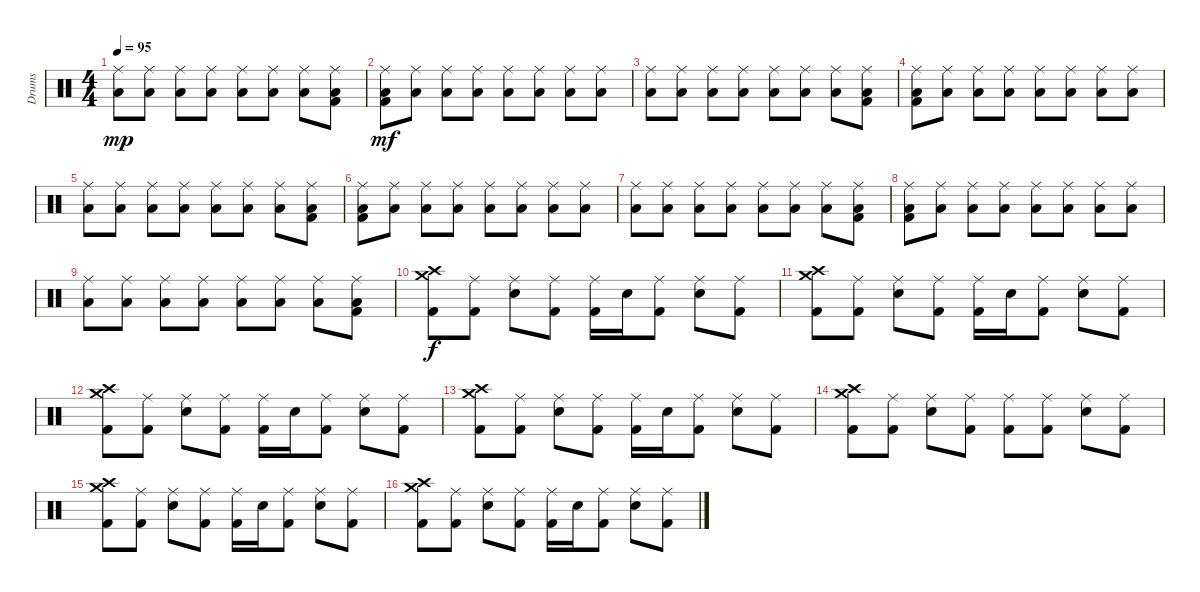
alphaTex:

\track ("Drums" "Drums") {instrument percussion}
\staff {score}
\articulation defaults
\ts (4 4)
\tempo 95
\clef neutral
\ks c
("Ride (middle)" "Low Tom (hit)").8{dy mp} ("Ride (middle)" "Low Tom (hit)").8 ("Ride (middle)" "Low Tom (hit)").8 ("Ride (middle)" "Low Tom (hit)").8 ("Ride (middle)" "Low Tom (hit)").8 ("Ride (middle)" "Low Tom (hit)").8 ("Ride (middle)" "Low Tom (hit)").8 ("Ride (middle)" "Low Tom (hit)" "Kick (hit) 2").8 |
("Ride (middle)" "Low Tom (hit)" "Kick (hit) 2").8{dy mf} ("Ride (middle)" "Low Tom (hit)").8 ("Ride (middle)" "Low Tom (hit)").8 ("Ride (middle)" "Low Tom (hit)").8 ("Ride (middle)" "Low Tom (hit)").8 ("Ride (middle)" "Low Tom (hit)").8 ("Ride (middle)" "Low Tom (hit)").8 ("Ride (middle)" "Low Tom (hit)").8 |
("Ride (middle)" "Low Tom (hit)").8 ("Ride (middle)" "Low Tom (hit)").8 ("Ride (middle)" "Low Tom (hit)").8 ("Ride (middle)" "Low Tom (hit)").8 ("Ride (middle)" "Low Tom (hit)").8 ("Ride (middle)" "Low Tom (hit)").8 ("Ride (middle)" "Low Tom (hit)").8 ("Ride (middle)" "Low Tom (hit)" "Kick (hit) 2").8 |
("Ride (middle)" "Low Tom (hit)" "Kick (hit) 2").8 ("Ride (middle)" "Low Tom (hit)").8 ("Ride (middle)" "Low Tom (hit)").8 ("Ride (middle)" "Low Tom (hit)").8 ("Ride (middle)" "Low Tom (hit)").8 ("Ride (middle)" "Low Tom (hit)").8 ("Ride (middle)" "Low Tom (hit)").8 ("Ride (middle)" "Low Tom (hit)").8 |
("Ride (middle)" "Low Tom (hit)").8 ("Ride (middle)" "Low Tom (hit)").8 ("Ride (middle)" "Low Tom (hit)").8 ("Ride (middle)" "Low Tom (hit)").8 ("Ride (middle)" "Low Tom (hit)").8 ("Ride (middle)" "Low Tom (hit)").8 ("Ride (middle)" "Low Tom (hit)").8 ("Ride (middle)" "Low Tom (hit)" "Kick (hit) 2").8 |
("Ride (middle)" "Low Tom (hit)" "Kick (hit) 2").8 ("Ride (middle)" "Low Tom (hit)").8 ("Ride (middle)" "Low Tom (hit)").8 ("Ride (middle)" "Low Tom (hit)").8 ("Ride (middle)" "Low Tom (hit)").8 ("Ride (middle)" "Low Tom (hit)").8 ("Ride (middle)" "Low Tom (hit)").8 ("Ride (middle)" "Low Tom (hit)").8 |
("Ride (middle)" "Low Tom (hit)").8 ("Ride (middle)" "Low Tom (hit)").8 ("Ride (middle)" "Low Tom (hit)").8 ("Ride (middle)" "Low Tom (hit)").8 ("Ride (middle)" "Low Tom (hit)").8 ("Ride (middle)" "Low Tom (hit)").8 ("Ride (middle)" "Low Tom (hit)").8 ("Ride (middle)" "Low Tom (hit)" "Kick (hit) 2").8 |
("Ride (middle)" "Low Tom (hit)" "Kick (hit) 2").8 ("Ride (middle)" "Low Tom (hit)").8 ("Ride (middle)" "Low Tom (hit)").8 ("Ride (middle)" "Low Tom (hit)").8 ("Ride (middle)" "Low Tom (hit)").8 ("Ride (middle)" "Low Tom (hit)").8 ("Ride (middle)" "Low Tom (hit)").8 ("Ride (middle)" "Low Tom (hit)").8 |
("Ride (middle)" "Low Tom (hit)").8 ("Ride (middle)" "Low Tom (hit)").8 ("Ride (middle)" "Low Tom (hit)").8 ("Ride (middle)" "Low Tom (hit)").8 ("Ride (middle)" "Low Tom (hit)").8 ("Ride (middle)" "Low Tom (hit)").8 ("Ride (middle)" "Low Tom (hit)").8 ("Ride (middle)" "Low Tom (hit)" "Kick (hit) 2").8 |
("Crash high (hit)" "Crash medium (hit)" "Kick (hit) 2").8{dy f volume 16} ("Ride (middle)" "Kick (hit) 2").8 ("Ride (middle)" "Snare (hit) 2").8 ("Ride (middle)" "Kick (hit) 2").8 ("Ride (middle)" "Kick (hit) 2").16 "Snare (hit) 2".16 ("Ride (middle)" "Kick (hit) 2").8 ("Ride (middle)" "Snare (hit) 2").8 ("Ride (middle)" "Kick (hit) 2").8 |
("Crash high (hit)" "Crash medium (hit)" "Kick (hit) 2").8 ("Ride (middle)" "Kick (hit) 2").8 ("Ride (middle)" "Snare (hit) 2").8 ("Ride (middle)" "Kick (hit) 2").8 ("Ride (middle)" "Kick (hit) 2").16 "Snare (hit) 2".16 ("Ride (middle)" "Kick (hit) 2").8 ("Ride (middle)" "Snare (hit) 2").8 ("Ride (middle)" "Kick (hit) 2").8 |
("Crash high (hit)" "Crash medium (hit)" "Kick (hit) 2").8 ("Ride (middle)" "Kick (hit) 2").8 ("Ride (middle)" "Snare (hit) 2").8 ("Ride (middle)" "Kick (hit) 2").8 ("Ride (middle)" "Kick (hit) 2").16 "Snare (hit) 2".16 ("Ride (middle)" "Kick (hit) 2").8 ("Ride (middle)" "Snare (hit) 2").8 ("Ride (middle)" "Kick (hit) 2").8 |
("Crash high (hit)" "Crash medium (hit)" "Kick (hit) 2").8 ("Ride (middle)" "Kick (hit) 2").8 ("Ride (middle)" "Snare (hit) 2").8 ("Ride (middle)" "Kick (hit) 2").8 ("Ride (middle)" "Kick (hit) 2").16 "Snare (hit) 2".16 ("Ride (middle)" "Kick (hit) 2").8 ("Ride (middle)" "Snare (hit) 2").8 ("Ride (middle)" "Kick (hit) 2").8 |
("Crash high (hit)" "Crash medium (hit)" "Kick (hit) 2").8 ("Ride (middle)" "Kick (hit) 2").8 ("Ride (middle)" "Snare (hit) 2").8 ("Ride (middle)" "Kick (hit) 2").8 ("Ride (middle)" "Kick (hit) 2").8 ("Ride (middle)" "Kick (hit) 2").8 ("Ride (middle)" "Snare (hit) 2").8 ("Ride (middle)" "Kick (hit) 2").8 |
("Crash high (hit)" "Crash medium (hit)" "Kick (hit) 2").8 ("Ride (middle)" "Kick (hit) 2").8 ("Ride (middle)" "Snare (hit) 2").8 ("Ride (middle)" "Kick (hit) 2").8 ("Ride (middle)" "Kick (hit) 2").16 "Snare (hit) 2".16 ("Ride (middle)" "Kick (hit) 2").8 ("Ride (middle)" "Snare (hit) 2").8 ("Ride (middle)" "Kick (hit) 2").8 |
("Crash high (hit)" "Crash medium (hit)" "Kick (hit) 2").8 ("Ride (middle)" "Kick (hit) 2").8 ("Ride (middle)" "Snare (hit) 2").8 ("Ride (middle)" "Kick (hit) 2").8 ("Ride (middle)" "Kick (hit) 2").16 "Snare (hit) 2".16 ("Ride (middle)" "Kick (hit) 2").8 ("Ride (middle)" "Snare (hit) 2").8 ("Ride (middle)" "Kick (hit) 2").8
